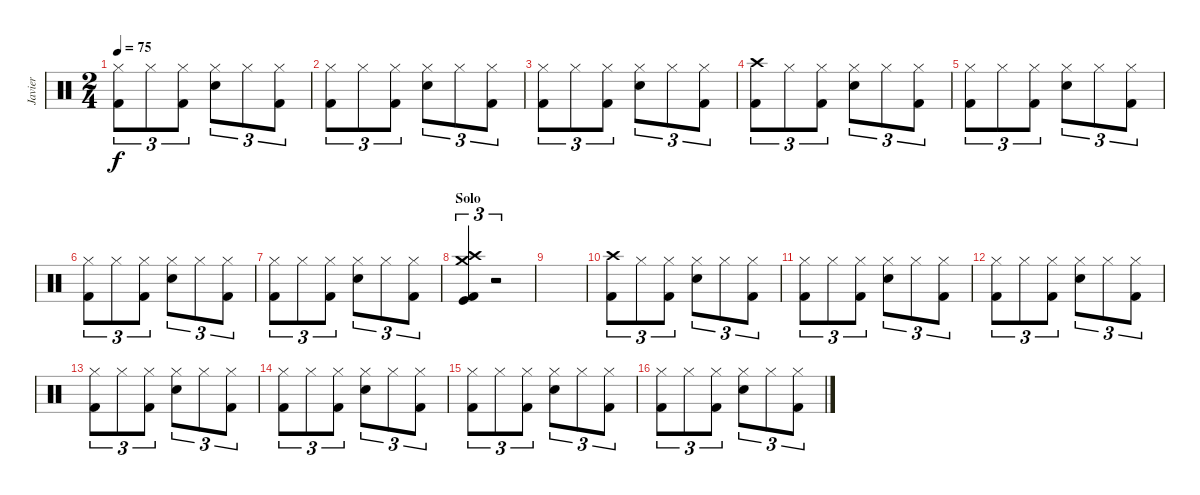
\track ("Javier" "Javier") {instrument percussion}
\staff {score}
\articulation defaults
\ts (2 4)
\tempo 75
\clef neutral
\ks c
("Hi-Hat (closed)" "Kick (hit) 2").8{tu (3 2) dy f} "Hi-Hat (closed)".8{tu (3 2)} ("Hi-Hat (closed)" "Kick (hit) 2").8{tu (3 2)} ("Hi-Hat (closed)" "Snare (hit) 2").8{tu (3 2)} "Hi-Hat (closed)".8{tu (3 2)} ("Hi-Hat (closed)" "Kick (hit) 2").8{tu (3 2)} |
("Hi-Hat (closed)" "Kick (hit) 2").8{tu (3 2)} "Hi-Hat (closed)".8{tu (3 2)} ("Hi-Hat (closed)" "Kick (hit) 2").8{tu (3 2)} ("Hi-Hat (closed)" "Snare (hit) 2").8{tu (3 2)} "Hi-Hat (closed)".8{tu (3 2)} ("Hi-Hat (closed)" "Kick (hit) 2").8{tu (3 2)} |
("Hi-Hat (closed)" "Kick (hit) 2").8{tu (3 2)} "Hi-Hat (closed)".8{tu (3 2)} ("Hi-Hat (closed)" "Kick (hit) 2").8{tu (3 2)} ("Hi-Hat (closed)" "Snare (hit) 2").8{tu (3 2)} "Hi-Hat (closed)".8{tu (3 2)} ("Hi-Hat (closed)" "Kick (hit) 2").8{tu (3 2)} |
("Crash high (hit)" "Kick (hit) 2").8{tu (3 2)} "Hi-Hat (closed)".8{tu (3 2)} ("Hi-Hat (closed)" "Kick (hit) 2").8{tu (3 2)} ("Hi-Hat (closed)" "Snare (hit) 2").8{tu (3 2)} "Hi-Hat (closed)".8{tu (3 2)} ("Hi-Hat (closed)" "Kick (hit) 2").8{tu (3 2)} |
("Hi-Hat (closed)" "Kick (hit) 2").8{tu (3 2)} "Hi-Hat (closed)".8{tu (3 2)} ("Hi-Hat (closed)" "Kick (hit) 2").8{tu (3 2)} ("Hi-Hat (closed)" "Snare (hit) 2").8{tu (3 2)} "Hi-Hat (closed)".8{tu (3 2)} ("Hi-Hat (closed)" "Kick (hit) 2").8{tu (3 2)} |
("Hi-Hat (closed)" "Kick (hit) 2").8{tu (3 2)} "Hi-Hat (closed)".8{tu (3 2)} ("Hi-Hat (closed)" "Kick (hit) 2").8{tu (3 2)} ("Hi-Hat (closed)" "Snare (hit) 2").8{tu (3 2)} "Hi-Hat (closed)".8{tu (3 2)} ("Hi-Hat (closed)" "Kick (hit) 2").8{tu (3 2)} |
("Hi-Hat (closed)" "Kick (hit) 2").8{tu (3 2)} "Hi-Hat (closed)".8{tu (3 2)} ("Hi-Hat (closed)" "Kick (hit) 2").8{tu (3 2)} ("Hi-Hat (closed)" "Snare (hit) 2").8{tu (3 2)} "Hi-Hat (closed)".8{tu (3 2)} ("Hi-Hat (closed)" "Kick (hit) 2").8{tu (3 2)} |
\section ("" "Solo")
("Crash high (hit)" "Crash medium (hit)" "Kick (hit) 2" "Kick (hit)").4{tu (3 2)} r.2{tu (3 2)} |
|
("Crash high (hit)" "Kick (hit) 2").8{tu (3 2)} "Hi-Hat (closed)".8{tu (3 2)} ("Hi-Hat (closed)" "Kick (hit) 2").8{tu (3 2)} ("Hi-Hat (closed)" "Snare (hit) 2").8{tu (3 2)} "Hi-Hat (closed)".8{tu (3 2)} ("Hi-Hat (closed)" "Kick (hit) 2").8{tu (3 2)} |
("Hi-Hat (closed)" "Kick (hit) 2").8{tu (3 2)} "Hi-Hat (closed)".8{tu (3 2)} ("Hi-Hat (closed)" "Kick (hit) 2").8{tu (3 2)} ("Hi-Hat (closed)" "Snare (hit) 2").8{tu (3 2)} "Hi-Hat (closed)".8{tu (3 2)} ("Hi-Hat (closed)" "Kick (hit) 2").8{tu (3 2)} |
("Hi-Hat (closed)" "Kick (hit) 2").8{tu (3 2)} "Hi-Hat (closed)".8{tu (3 2)} ("Hi-Hat (closed)" "Kick (hit) 2").8{tu (3 2)} ("Hi-Hat (closed)" "Snare (hit) 2").8{tu (3 2)} "Hi-Hat (closed)".8{tu (3 2)} ("Hi-Hat (closed)" "Kick (hit) 2").8{tu (3 2)} |
("Hi-Hat (closed)" "Kick (hit) 2").8{tu (3 2)} "Hi-Hat (closed)".8{tu (3 2)} ("Hi-Hat (closed)" "Kick (hit) 2").8{tu (3 2)} ("Hi-Hat (closed)" "Snare (hit) 2").8{tu (3 2)} "Hi-Hat (closed)".8{tu (3 2)} ("Hi-Hat (closed)" "Kick (hit) 2").8{tu (3 2)} |
("Hi-Hat (closed)" "Kick (hit) 2").8{tu (3 2)} "Hi-Hat (closed)".8{tu (3 2)} ("Hi-Hat (closed)" "Kick (hit) 2").8{tu (3 2)} ("Hi-Hat (closed)" "Snare (hit) 2").8{tu (3 2)} "Hi-Hat (closed)".8{tu (3 2)} ("Hi-Hat (closed)" "Kick (hit) 2").8{tu (3 2)} |
("Hi-Hat (closed)" "Kick (hit) 2").8{tu (3 2)} "Hi-Hat (closed)".8{tu (3 2)} ("Hi-Hat (closed)" "Kick (hit) 2").8{tu (3 2)} ("Hi-Hat (closed)" "Snare (hit) 2").8{tu (3 2)} "Hi-Hat (closed)".8{tu (3 2)} ("Hi-Hat (closed)" "Kick (hit) 2").8{tu (3 2)} |
("Hi-Hat (closed)" "Kick (hit) 2").8{tu (3 2)} "Hi-Hat (closed)".8{tu (3 2)} ("Hi-Hat (closed)" "Kick (hit) 2").8{tu (3 2)} ("Hi-Hat (closed)" "Snare (hit) 2").8{tu (3 2)} "Hi-Hat (closed)".8{tu (3 2)} ("Hi-Hat (closed)" "Kick (hit) 2").8{tu (3 2)}
